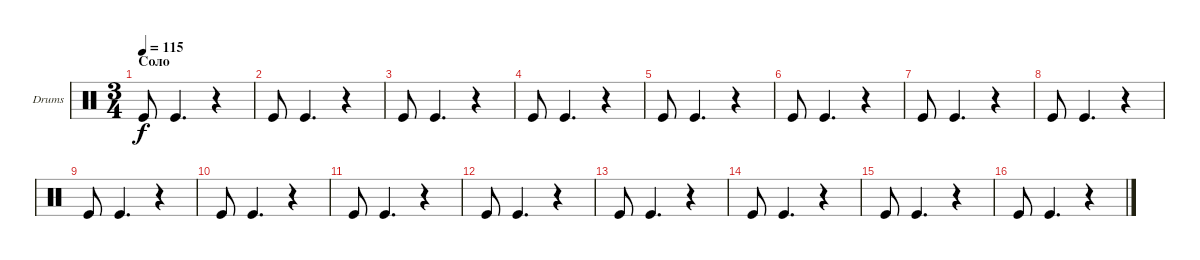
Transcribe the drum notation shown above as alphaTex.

\defaultSystemsLayout 4
\bracketExtendMode groupsimilarinstruments
\firstSystemTrackNameOrientation horizontal
\otherSystemsTrackNameOrientation horizontal
\track ("Е. Кулаков" "Drums") {instrument percussion}
\staff {score}
\articulation defaults
\ts (3 4)
\section ("" "Соло")
\tempo 115
\clef neutral
\ks c "Kick (hit)".8{dy f} "Kick (hit)".4{d}
r.4 |
"Kick (hit)".8 "Kick (hit)".4{d} r.4 |
"Kick (hit)".8 "Kick (hit)".4{d} r.4 |
"Kick (hit)".8 "Kick (hit)".4{d} r.4 |
"Kick (hit)".8 "Kick (hit)".4{d} r.4 |
"Kick (hit)".8 "Kick (hit)".4{d} r.4 |
"Kick (hit)".8 "Kick (hit)".4{d} r.4 |
"Kick (hit)".8 "Kick (hit)".4{d} r.4 |
"Kick (hit)".8 "Kick (hit)".4{d} r.4 |
"Kick (hit)".8 "Kick (hit)".4{d} r.4 |
"Kick (hit)".8 "Kick (hit)".4{d} r.4 |
"Kick (hit)".8 "Kick (hit)".4{d} r.4 |
"Kick (hit)".8 "Kick (hit)".4{d} r.4 |
"Kick (hit)".8 "Kick (hit)".4{d} r.4 |
"Kick (hit)".8 "Kick (hit)".4{d} r.4 |
"Kick (hit)".8 "Kick (hit)".4{d} r.4
